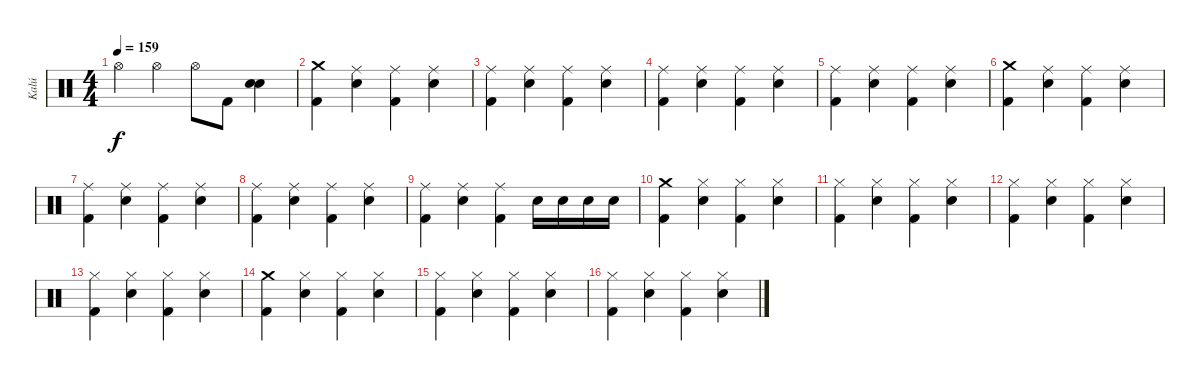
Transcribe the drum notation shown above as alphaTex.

\track ("Kalú" "Kalú") {instrument percussion}
\staff {score}
\articulation defaults
\ts (4 4)
\tempo 159
\clef neutral
\ks c "Hi-Hat (open)".4{dy f} "Hi-Hat (open)".4 "Hi-Hat (open)".8 "Kick (hit) 2".8
("Electric Snare (hit)" "Electric Snare (hit)").4 |
("Crash medium (hit)" "Kick (hit) 2").4 ("Ride (middle)" "Electric Snare (hit)").4 ("Ride (middle)" "Kick (hit) 2").4 ("Ride (middle)" "Electric Snare (hit)").4 |
("Ride (middle)" "Kick (hit) 2").4 ("Ride (middle)" "Electric Snare (hit)").4 ("Ride (middle)" "Kick (hit) 2").4 ("Ride (middle)" "Electric Snare (hit)").4 |
("Ride (middle)" "Kick (hit) 2").4 ("Ride (middle)" "Electric Snare (hit)").4 ("Ride (middle)" "Kick (hit) 2").4 ("Ride (middle)" "Electric Snare (hit)").4 |
("Ride (middle)" "Kick (hit) 2").4 ("Ride (middle)" "Electric Snare (hit)").4 ("Ride (middle)" "Kick (hit) 2").4 ("Ride (middle)" "Electric Snare (hit)").4 |
("Crash medium (hit)" "Kick (hit) 2").4 ("Ride (middle)" "Electric Snare (hit)").4 ("Ride (middle)" "Kick (hit) 2").4 ("Ride (middle)" "Electric Snare (hit)").4 |
("Ride (middle)" "Kick (hit) 2").4 ("Ride (middle)" "Electric Snare (hit)").4 ("Ride (middle)" "Kick (hit) 2").4 ("Ride (middle)" "Electric Snare (hit)").4 |
("Ride (middle)" "Kick (hit) 2").4 ("Ride (middle)" "Electric Snare (hit)").4 ("Ride (middle)" "Kick (hit) 2").4 ("Ride (middle)" "Electric Snare (hit)").4 |
("Ride (middle)" "Kick (hit) 2").4 ("Ride (middle)" "Electric Snare (hit)").4 ("Ride (middle)" "Kick (hit) 2").4 "Electric Snare (hit)".16 "Electric Snare (hit)".16 "Electric Snare (hit)".16 "Electric Snare (hit)".16 |
("Crash medium (hit)" "Kick (hit) 2").4 ("Hi-Hat (closed)" "Electric Snare (hit)").4 ("Hi-Hat (closed)" "Kick (hit) 2").4 ("Hi-Hat (closed)" "Electric Snare (hit)").4 |
("Hi-Hat (closed)" "Kick (hit) 2").4 ("Hi-Hat (closed)" "Electric Snare (hit)").4 ("Hi-Hat (closed)" "Kick (hit) 2").4 ("Hi-Hat (closed)" "Electric Snare (hit)").4 |
("Hi-Hat (closed)" "Kick (hit) 2").4 ("Hi-Hat (closed)" "Electric Snare (hit)").4 ("Hi-Hat (closed)" "Kick (hit) 2").4 ("Hi-Hat (closed)" "Electric Snare (hit)").4 |
("Hi-Hat (closed)" "Kick (hit) 2").4 ("Hi-Hat (closed)" "Electric Snare (hit)").4 ("Hi-Hat (closed)" "Kick (hit) 2").4 ("Hi-Hat (closed)" "Electric Snare (hit)").4 |
("Crash medium (hit)" "Kick (hit) 2").4 ("Hi-Hat (closed)" "Electric Snare (hit)").4 ("Hi-Hat (closed)" "Kick (hit) 2").4 ("Hi-Hat (closed)" "Electric Snare (hit)").4 |
("Hi-Hat (closed)" "Kick (hit) 2").4 ("Hi-Hat (closed)" "Electric Snare (hit)").4 ("Hi-Hat (closed)" "Kick (hit) 2").4 ("Hi-Hat (closed)" "Electric Snare (hit)").4 |
("Hi-Hat (closed)" "Kick (hit) 2").4 ("Hi-Hat (closed)" "Electric Snare (hit)").4 ("Hi-Hat (closed)" "Kick (hit) 2").4 ("Hi-Hat (closed)" "Electric Snare (hit)").4
